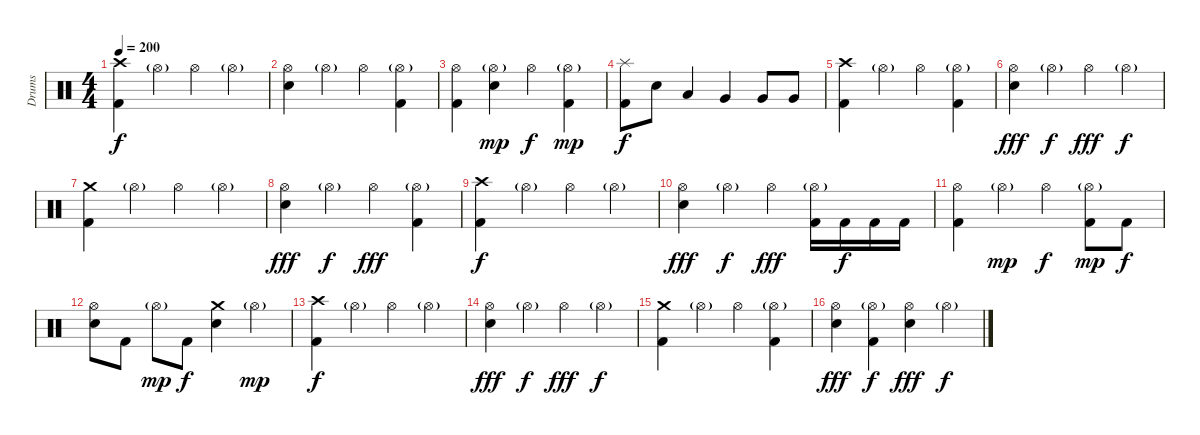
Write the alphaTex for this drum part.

\track ("Drums" "Drums") {instrument percussion}
\staff {score}
\articulation defaults
\ts (4 4)
\tempo 200
\clef neutral
\ks c
("Crash high (hit)" "Kick (hit) 2").4{dy f} "Hi-Hat (open)"{g}.4 "Hi-Hat (open)".4 "Hi-Hat (open)"{g}.4 |
("Hi-Hat (open)" "Electric Snare (hit)").4 "Hi-Hat (open)"{g}.4 "Hi-Hat (open)".4 ("Hi-Hat (open)"{g} "Kick (hit) 2").4 |
("Hi-Hat (open)" "Kick (hit) 2").4 ("Hi-Hat (open)"{g} "Electric Snare (hit)").4{dy mp} "Hi-Hat (open)".4{dy f} ("Hi-Hat (open)"{g} "Kick (hit) 2").4{dy mp} |
("Splash (hit)" "Kick (hit) 2").8{dy f} "Electric Snare (hit)".8 "Low Tom (hit)".4 "Very Low Tom (hit)".4 "Very Low Tom (hit)".8 "Very Low Tom (hit)".8 |
("Crash high (hit)" "Kick (hit) 2").4 "Hi-Hat (open)"{g}.4 "Hi-Hat (open)".4 ("Hi-Hat (open)"{g} "Kick (hit) 2").4 |
("Hi-Hat (open)" "Electric Snare (hit)").4{dy fff} "Hi-Hat (open)"{g}.4{dy f} "Hi-Hat (open)".4{dy fff} "Hi-Hat (open)"{g}.4{dy f} |
("Crash medium (hit)" "Kick (hit) 2").4 "Hi-Hat (open)"{g}.4 "Hi-Hat (open)".4 "Hi-Hat (open)"{g}.4 |
("Hi-Hat (open)" "Electric Snare (hit)").4{dy fff} "Hi-Hat (open)"{g}.4{dy f} "Hi-Hat (open)".4{dy fff} ("Hi-Hat (open)"{g} "Kick (hit) 2").4 |
("Crash high (hit)" "Kick (hit) 2").4{dy f} "Hi-Hat (open)"{g}.4 "Hi-Hat (open)".4 "Hi-Hat (open)"{g}.4 |
("Hi-Hat (open)" "Electric Snare (hit)").4{dy fff} "Hi-Hat (open)"{g}.4{dy f} "Hi-Hat (open)".4{dy fff} ("Hi-Hat (open)"{g} "Kick (hit) 2").16 "Kick (hit) 2".16{dy f} "Kick (hit) 2".16 "Kick (hit) 2".16 |
("Hi-Hat (open)" "Kick (hit) 2").4 "Hi-Hat (open)"{g}.4{dy mp} "Hi-Hat (open)".4{dy f} ("Hi-Hat (open)"{g} "Kick (hit) 2").8{dy mp} "Kick (hit) 2".8{dy f} |
("Hi-Hat (open)" "Electric Snare (hit)").8 "Kick (hit) 2".8 "Hi-Hat (open)"{g}.8{dy mp} "Kick (hit) 2".8{dy f} ("Crash medium (hit)" "Electric Snare (hit)").4 "Hi-Hat (open)"{g}.4{dy mp} |
("Crash high (hit)" "Kick (hit) 2").4{dy f} "Hi-Hat (open)"{g}.4 "Hi-Hat (open)".4 "Hi-Hat (open)"{g}.4 |
("Hi-Hat (open)" "Electric Snare (hit)").4{dy fff} "Hi-Hat (open)"{g}.4{dy f} "Hi-Hat (open)".4{dy fff} "Hi-Hat (open)"{g}.4{dy f} |
("Crash medium (hit)" "Kick (hit) 2").4 "Hi-Hat (open)"{g}.4 "Hi-Hat (open)".4 ("Hi-Hat (open)"{g} "Kick (hit) 2").4 |
("Hi-Hat (open)" "Electric Snare (hit)").4{dy fff} ("Hi-Hat (open)"{g} "Kick (hit) 2").4{dy f} ("Hi-Hat (open)" "Electric Snare (hit)").4{dy fff} "Hi-Hat (open)"{g}.4{dy f}
